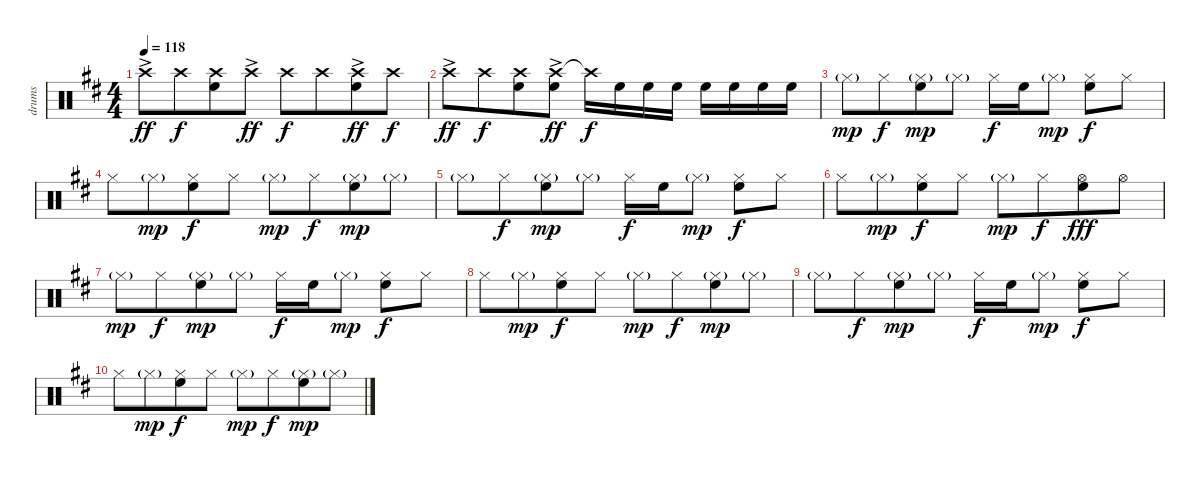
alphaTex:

\track ("drums" "drums") {instrument percussion}
\staff {score}
\articulation defaults
\ts (4 4)
\tempo 118
\clef neutral
\ks d "Crash high (hit)"{ac}.8{dy ff} "Crash high (hit)".8{dy f beam merge}
("Crash high (hit)" "High Floor Tom (hit)").8 "Crash high (hit)"{ac}.8{dy ff} "Crash high (hit)".8{dy f} "Crash high (hit)".8{beam merge} ("Crash high (hit)"{ac} "High Floor Tom (hit)").8{dy ff} "Crash high (hit)".8{dy f} |
"Crash high (hit)"{ac}.8{dy ff} "Crash high (hit)".8{dy f beam merge} ("Crash high (hit)" "High Floor Tom (hit)").8 ("Crash high (hit)"{ac} "High Floor Tom (hit)").8{dy ff} "Crash high (hit)"{t}.16{dy f} "High Floor Tom (hit)".16 "High Floor Tom (hit)".16 "High Floor Tom (hit)".16 "High Floor Tom (hit)".16 "High Floor Tom (hit)".16 "High Floor Tom (hit)".16 "High Floor Tom (hit)".16 |
"Hi-Hat (closed)"{g}.8{dy mp} "Hi-Hat (closed)".8{dy f beam merge} ("Hi-Hat (closed)"{g} "High Floor Tom (hit)").8{dy mp} "Hi-Hat (closed)"{g}.8 "Hi-Hat (closed)".16{dy f} "High Floor Tom (hit)".16{beam merge} "Hi-Hat (closed)"{g}.8{dy mp beam split} ("Hi-Hat (closed)" "High Floor Tom (hit)").8{dy f} "Hi-Hat (closed)".8 |
"Hi-Hat (closed)".8 "Hi-Hat (closed)"{g}.8{dy mp beam merge} ("Hi-Hat (closed)" "High Floor Tom (hit)").8{dy f} "Hi-Hat (closed)".8 "Hi-Hat (closed)"{g}.8{dy mp} "Hi-Hat (closed)".8{dy f beam merge} ("Hi-Hat (closed)"{g} "High Floor Tom (hit)").8{dy mp} "Hi-Hat (closed)"{g}.8 |
"Hi-Hat (closed)"{g}.8 "Hi-Hat (closed)".8{dy f beam merge} ("Hi-Hat (closed)"{g} "High Floor Tom (hit)").8{dy mp} "Hi-Hat (closed)"{g}.8 "Hi-Hat (closed)".16{dy f} "High Floor Tom (hit)".16{beam merge} "Hi-Hat (closed)"{g}.8{dy mp beam split} ("Hi-Hat (closed)" "High Floor Tom (hit)").8{dy f} "Hi-Hat (closed)".8 |
"Hi-Hat (closed)".8 "Hi-Hat (closed)"{g}.8{dy mp beam merge} ("Hi-Hat (closed)" "High Floor Tom (hit)").8{dy f} "Hi-Hat (closed)".8 "Hi-Hat (closed)"{g}.8{dy mp} "Hi-Hat (closed)".8{dy f beam merge} ("Hi-Hat (open)" "High Floor Tom (hit)").8{dy fff} "Hi-Hat (open)".8 |
"Hi-Hat (closed)"{g}.8{dy mp} "Hi-Hat (closed)".8{dy f beam merge} ("Hi-Hat (closed)"{g} "High Floor Tom (hit)").8{dy mp} "Hi-Hat (closed)"{g}.8 "Hi-Hat (closed)".16{dy f} "High Floor Tom (hit)".16{beam merge} "Hi-Hat (closed)"{g}.8{dy mp beam split} ("Hi-Hat (closed)" "High Floor Tom (hit)").8{dy f} "Hi-Hat (closed)".8 |
"Hi-Hat (closed)".8 "Hi-Hat (closed)"{g}.8{dy mp beam merge} ("Hi-Hat (closed)" "High Floor Tom (hit)").8{dy f} "Hi-Hat (closed)".8 "Hi-Hat (closed)"{g}.8{dy mp} "Hi-Hat (closed)".8{dy f beam merge} ("Hi-Hat (closed)"{g} "High Floor Tom (hit)").8{dy mp} "Hi-Hat (closed)"{g}.8 |
"Hi-Hat (closed)"{g}.8 "Hi-Hat (closed)".8{dy f beam merge} ("Hi-Hat (closed)"{g} "High Floor Tom (hit)").8{dy mp} "Hi-Hat (closed)"{g}.8 "Hi-Hat (closed)".16{dy f} "High Floor Tom (hit)".16{beam merge} "Hi-Hat (closed)"{g}.8{dy mp beam split} ("Hi-Hat (closed)" "High Floor Tom (hit)").8{dy f} "Hi-Hat (closed)".8 |
"Hi-Hat (closed)".8 "Hi-Hat (closed)"{g}.8{dy mp beam merge} ("Hi-Hat (closed)" "High Floor Tom (hit)").8{dy f} "Hi-Hat (closed)".8 "Hi-Hat (closed)"{g}.8{dy mp} "Hi-Hat (closed)".8{dy f beam merge} ("Hi-Hat (closed)"{g} "High Floor Tom (hit)").8{dy mp} "Hi-Hat (closed)"{g}.8
